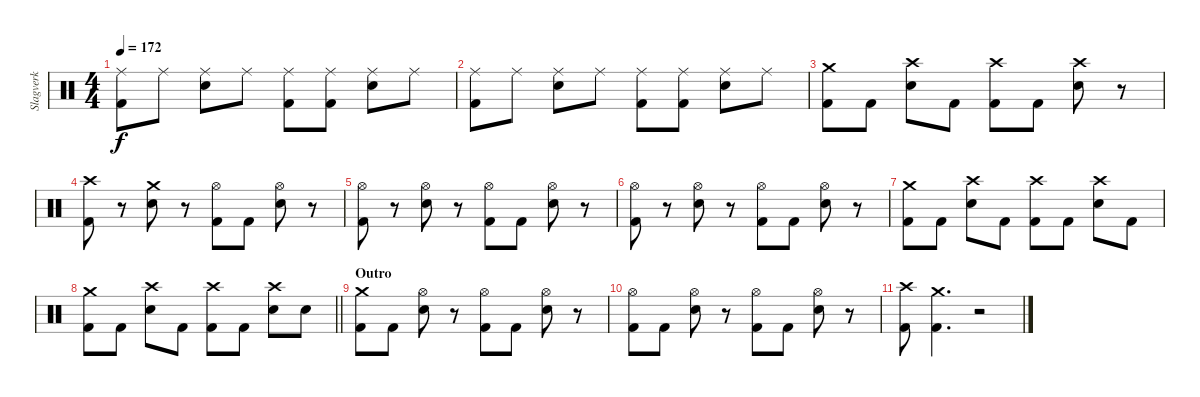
\track ("Slagverk" "Slagverk") {instrument percussion}
\staff {score}
\articulation defaults
\ts (4 4)
\tempo 172
\clef neutral
\ks c
("Ride (middle)" "Kick (hit) 2").8{dy f} "Ride (middle)".8 ("Ride (middle)" "Electric Snare (hit)").8 "Ride (middle)".8 ("Ride (middle)" "Kick (hit) 2").8 ("Ride (middle)" "Kick (hit) 2").8 ("Ride (middle)" "Electric Snare (hit)").8 "Ride (middle)".8 |
("Ride (middle)" "Kick (hit) 2").8 "Ride (middle)".8 ("Ride (middle)" "Electric Snare (hit)").8 "Ride (middle)".8 ("Ride (middle)" "Kick (hit) 2").8 ("Ride (middle)" "Kick (hit) 2").8 ("Ride (middle)" "Electric Snare (hit)").8 "Ride (middle)".8 |
("Crash medium (hit)" "Kick (hit) 2").8 "Kick (hit) 2".8 ("Crash high (hit)" "Electric Snare (hit)").8 "Kick (hit) 2".8 ("Crash high (hit)" "Kick (hit) 2").8 "Kick (hit) 2".8 ("Crash high (hit)" "Electric Snare (hit)").8 r.8 |
("Crash high (hit)" "Kick (hit) 2").8 r.8 ("Crash medium (hit)" "Electric Snare (hit)").8 r.8 ("Hi-Hat (open)" "Kick (hit) 2").8 "Kick (hit) 2".8 ("Hi-Hat (open)" "Electric Snare (hit)").8 r.8 |
("Hi-Hat (open)" "Kick (hit) 2").8 r.8 ("Hi-Hat (open)" "Electric Snare (hit)").8 r.8 ("Hi-Hat (open)" "Kick (hit) 2").8 "Kick (hit) 2".8 ("Hi-Hat (open)" "Electric Snare (hit)").8 r.8 |
("Hi-Hat (open)" "Kick (hit) 2").8 r.8 ("Hi-Hat (open)" "Electric Snare (hit)").8 r.8 ("Hi-Hat (open)" "Kick (hit) 2").8 "Kick (hit) 2".8 ("Hi-Hat (open)" "Electric Snare (hit)").8 r.8 |
("Crash medium (hit)" "Kick (hit) 2").8 "Kick (hit) 2".8 ("Crash high (hit)" "Electric Snare (hit)").8 "Kick (hit) 2".8 ("Crash high (hit)" "Kick (hit) 2").8 "Kick (hit) 2".8 ("Crash high (hit)" "Electric Snare (hit)").8 "Kick (hit) 2".8 |
\barLineRight lightlight
("Crash medium (hit)" "Kick (hit) 2").8 "Kick (hit) 2".8 ("Crash high (hit)" "Electric Snare (hit)").8 "Kick (hit) 2".8 ("Crash high (hit)" "Kick (hit) 2").8 "Kick (hit) 2".8 ("Crash high (hit)" "Electric Snare (hit)").8 "Electric Snare (hit)".8 |
\section ("" "Outro")
("Crash medium (hit)" "Kick (hit) 2").8 "Kick (hit) 2".8 ("Hi-Hat (open)" "Electric Snare (hit)").8 r.8 ("Hi-Hat (open)" "Kick (hit) 2").8 "Kick (hit) 2".8 ("Hi-Hat (open)" "Electric Snare (hit)").8 r.8 |
("Hi-Hat (open)" "Kick (hit) 2").8 "Kick (hit) 2".8 ("Hi-Hat (open)" "Electric Snare (hit)").8 r.8 ("Hi-Hat (open)" "Kick (hit) 2").8 "Kick (hit) 2".8 ("Hi-Hat (open)" "Electric Snare (hit)").8 r.8 |
("Crash high (hit)" "Kick (hit) 2").8 ("Crash medium (hit)" "Kick (hit) 2").4{d} r.2
